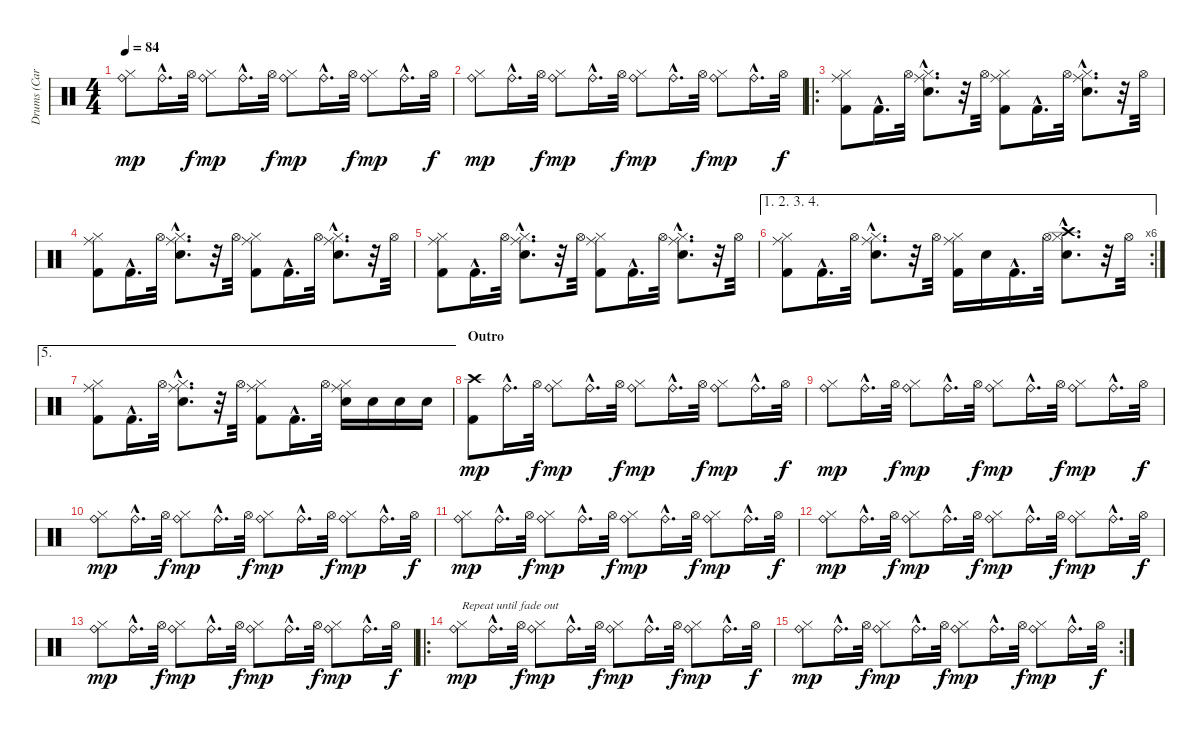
\track ("Drums (Carter Beauford)" "Drums (Car") {instrument percussion}
\staff {score}
\articulation defaults
\ts (4 4)
\tempo 84
\clef neutral
\ks c
("Ride (bell)" "Hi-Hat (closed)").8{dy mp} "Ride (bell)"{hac}.16{d} "Hi-Hat (open)".32{dy f} ("Ride (bell)" "Hi-Hat (closed)").8{dy mp} "Ride (bell)"{hac}.16{d} "Hi-Hat (open)".32{dy f} ("Ride (bell)" "Hi-Hat (closed)").8{dy mp} "Ride (bell)"{hac}.16{d} "Hi-Hat (open)".32{dy f} ("Ride (bell)" "Hi-Hat (closed)").8{dy mp} "Ride (bell)"{hac}.16{d} "Hi-Hat (open)".32{dy f} |
("Ride (bell)" "Hi-Hat (closed)").8{dy mp} "Ride (bell)"{hac}.16{d} "Hi-Hat (open)".32{dy f} ("Ride (bell)" "Hi-Hat (closed)").8{dy mp} "Ride (bell)"{hac}.16{d} "Hi-Hat (open)".32{dy f} ("Ride (bell)" "Hi-Hat (closed)").8{dy mp} "Ride (bell)"{hac}.16{d} "Hi-Hat (open)".32{dy f} ("Ride (bell)" "Hi-Hat (closed)").8{dy mp} "Ride (bell)"{hac}.16{d} "Hi-Hat (open)".32{dy f} |
\ro
("Ride (middle)" "Hi-Hat (closed)" "Kick (hit) 2").8 "Kick (hit) 2"{hac}.16{d} "Hi-Hat (open)".32 ("Ride (middle)"{hac} "Hi-Hat (closed)"{hac} "Snare (hit) 2"{hac}).8{d} r.32 "Hi-Hat (open)".32 ("Ride (middle)" "Hi-Hat (closed)" "Kick (hit) 2").8 "Kick (hit) 2"{hac}.16{d} "Hi-Hat (open)".32 ("Ride (middle)"{hac} "Hi-Hat (closed)"{hac} "Snare (hit) 2"{hac}).8{d} r.32 "Hi-Hat (open)".32 |
("Ride (middle)" "Hi-Hat (closed)" "Kick (hit) 2").8 "Kick (hit) 2"{hac}.16{d} "Hi-Hat (open)".32 ("Ride (middle)"{hac} "Hi-Hat (closed)"{hac} "Snare (hit) 2"{hac}).8{d} r.32 "Hi-Hat (open)".32 ("Ride (middle)" "Hi-Hat (closed)" "Kick (hit) 2").8 "Kick (hit) 2"{hac}.16{d} "Hi-Hat (open)".32 ("Ride (middle)"{hac} "Hi-Hat (closed)"{hac} "Snare (hit) 2"{hac}).8{d} r.32 "Hi-Hat (open)".32 |
("Ride (middle)" "Hi-Hat (closed)" "Kick (hit) 2").8 "Kick (hit) 2"{hac}.16{d} "Hi-Hat (open)".32 ("Ride (middle)"{hac} "Hi-Hat (closed)"{hac} "Snare (hit) 2"{hac}).8{d} r.32 "Hi-Hat (open)".32 ("Ride (middle)" "Hi-Hat (closed)" "Kick (hit) 2").8 "Kick (hit) 2"{hac}.16{d} "Hi-Hat (open)".32 ("Ride (middle)"{hac} "Hi-Hat (closed)"{hac} "Snare (hit) 2"{hac}).8{d} r.32 "Hi-Hat (open)".32 |
\ae (1 2 3 4)
\rc 6
("Ride (middle)" "Hi-Hat (closed)" "Kick (hit) 2").8 "Kick (hit) 2"{hac}.16{d} "Hi-Hat (open)".32 ("Ride (middle)"{hac} "Hi-Hat (closed)"{hac} "Snare (hit) 2"{hac}).8{d} r.32 "Hi-Hat (open)".32 ("Ride (middle)" "Hi-Hat (closed)" "Kick (hit) 2").16 "Snare (hit) 2".16 "Kick (hit) 2"{hac}.16{d} "Hi-Hat (open)".32 ("Crash high (hit)"{hac} "Hi-Hat (closed)"{hac} "Snare (hit) 2"{hac}).8{d} r.32 "Hi-Hat (open)".32 |
\ae 5
("Ride (middle)" "Hi-Hat (closed)" "Kick (hit) 2").8 "Kick (hit) 2"{hac}.16{d} "Hi-Hat (open)".32 ("Ride (middle)"{hac} "Hi-Hat (closed)"{hac} "Snare (hit) 2"{hac}).8{d} r.32 "Hi-Hat (open)".32 ("Ride (middle)" "Hi-Hat (closed)" "Kick (hit) 2").8 "Kick (hit) 2"{hac}.16{d} "Hi-Hat (open)".32 ("Ride (middle)" "Hi-Hat (closed)" "Snare (hit) 2").16 "Snare (hit) 2".16 "Snare (hit) 2".16 "Snare (hit) 2".16 |
\section ("" "Outro")
("Crash high (hit)" "Kick (hit) 2").8{dy mp} "Ride (bell)"{hac}.16{d} "Hi-Hat (open)".32{dy f} ("Ride (bell)" "Hi-Hat (closed)").8{dy mp} "Ride (bell)"{hac}.16{d} "Hi-Hat (open)".32{dy f} ("Ride (bell)" "Hi-Hat (closed)").8{dy mp} "Ride (bell)"{hac}.16{d} "Hi-Hat (open)".32{dy f} ("Ride (bell)" "Hi-Hat (closed)").8{dy mp} "Ride (bell)"{hac}.16{d} "Hi-Hat (open)".32{dy f} |
("Ride (bell)" "Hi-Hat (closed)").8{dy mp} "Ride (bell)"{hac}.16{d} "Hi-Hat (open)".32{dy f} ("Ride (bell)" "Hi-Hat (closed)").8{dy mp} "Ride (bell)"{hac}.16{d} "Hi-Hat (open)".32{dy f} ("Ride (bell)" "Hi-Hat (closed)").8{dy mp} "Ride (bell)"{hac}.16{d} "Hi-Hat (open)".32{dy f} ("Ride (bell)" "Hi-Hat (closed)").8{dy mp} "Ride (bell)"{hac}.16{d} "Hi-Hat (open)".32{dy f} |
("Ride (bell)" "Hi-Hat (closed)").8{dy mp} "Ride (bell)"{hac}.16{d} "Hi-Hat (open)".32{dy f} ("Ride (bell)" "Hi-Hat (closed)").8{dy mp} "Ride (bell)"{hac}.16{d} "Hi-Hat (open)".32{dy f} ("Ride (bell)" "Hi-Hat (closed)").8{dy mp} "Ride (bell)"{hac}.16{d} "Hi-Hat (open)".32{dy f} ("Ride (bell)" "Hi-Hat (closed)").8{dy mp} "Ride (bell)"{hac}.16{d} "Hi-Hat (open)".32{dy f} |
("Ride (bell)" "Hi-Hat (closed)").8{dy mp} "Ride (bell)"{hac}.16{d} "Hi-Hat (open)".32{dy f} ("Ride (bell)" "Hi-Hat (closed)").8{dy mp} "Ride (bell)"{hac}.16{d} "Hi-Hat (open)".32{dy f} ("Ride (bell)" "Hi-Hat (closed)").8{dy mp} "Ride (bell)"{hac}.16{d} "Hi-Hat (open)".32{dy f} ("Ride (bell)" "Hi-Hat (closed)").8{dy mp} "Ride (bell)"{hac}.16{d} "Hi-Hat (open)".32{dy f} |
("Ride (bell)" "Hi-Hat (closed)").8{dy mp} "Ride (bell)"{hac}.16{d} "Hi-Hat (open)".32{dy f} ("Ride (bell)" "Hi-Hat (closed)").8{dy mp} "Ride (bell)"{hac}.16{d} "Hi-Hat (open)".32{dy f} ("Ride (bell)" "Hi-Hat (closed)").8{dy mp} "Ride (bell)"{hac}.16{d} "Hi-Hat (open)".32{dy f} ("Ride (bell)" "Hi-Hat (closed)").8{dy mp} "Ride (bell)"{hac}.16{d} "Hi-Hat (open)".32{dy f} |
("Ride (bell)" "Hi-Hat (closed)").8{dy mp} "Ride (bell)"{hac}.16{d} "Hi-Hat (open)".32{dy f} ("Ride (bell)" "Hi-Hat (closed)").8{dy mp} "Ride (bell)"{hac}.16{d} "Hi-Hat (open)".32{dy f} ("Ride (bell)" "Hi-Hat (closed)").8{dy mp} "Ride (bell)"{hac}.16{d} "Hi-Hat (open)".32{dy f} ("Ride (bell)" "Hi-Hat (closed)").8{dy mp} "Ride (bell)"{hac}.16{d} "Hi-Hat (open)".32{dy f} |
\ro
("Ride (bell)" "Hi-Hat (closed)").8{txt "Repeat until fade out" dy mp} "Ride (bell)"{hac}.16{d} "Hi-Hat (open)".32{dy f} ("Ride (bell)" "Hi-Hat (closed)").8{dy mp} "Ride (bell)"{hac}.16{d} "Hi-Hat (open)".32{dy f} ("Ride (bell)" "Hi-Hat (closed)").8{dy mp} "Ride (bell)"{hac}.16{d} "Hi-Hat (open)".32{dy f} ("Ride (bell)" "Hi-Hat (closed)").8{dy mp} "Ride (bell)"{hac}.16{d} "Hi-Hat (open)".32{dy f} |
\rc 2
("Ride (bell)" "Hi-Hat (closed)").8{dy mp} "Ride (bell)"{hac}.16{d} "Hi-Hat (open)".32{dy f} ("Ride (bell)" "Hi-Hat (closed)").8{dy mp} "Ride (bell)"{hac}.16{d} "Hi-Hat (open)".32{dy f} ("Ride (bell)" "Hi-Hat (closed)").8{dy mp} "Ride (bell)"{hac}.16{d} "Hi-Hat (open)".32{dy f} ("Ride (bell)" "Hi-Hat (closed)").8{dy mp} "Ride (bell)"{hac}.16{d} "Hi-Hat (open)".32{dy f}
